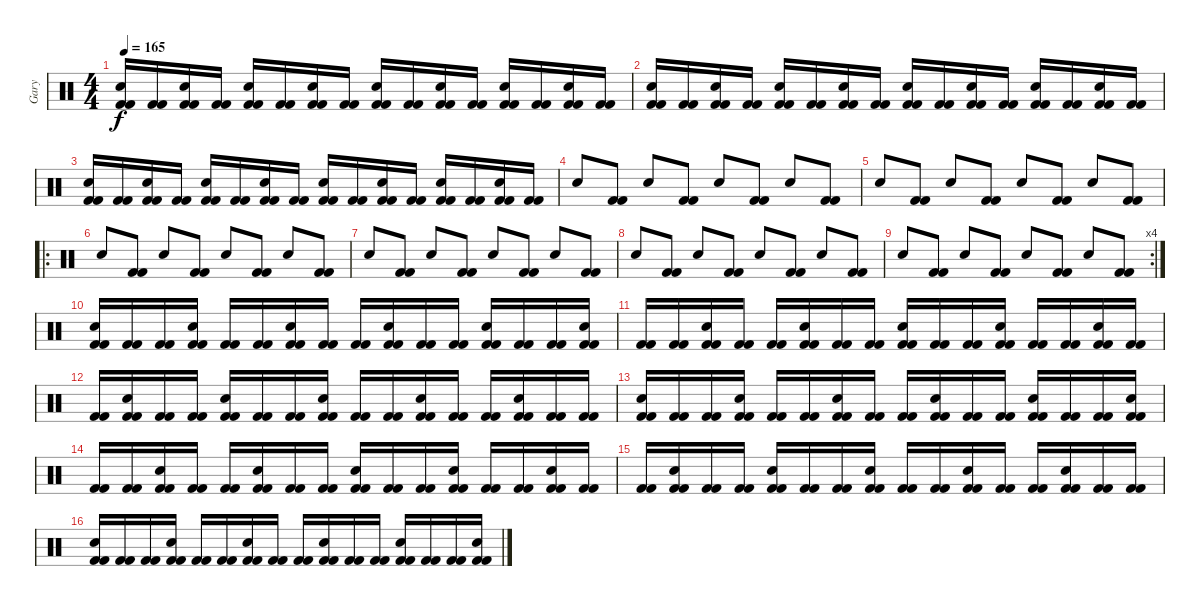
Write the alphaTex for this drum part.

\track ("Gary" "Gary") {instrument percussion}
\staff {score}
\articulation defaults
\ts (4 4)
\tempo 165
\clef neutral
\ks c
("Kick (hit) 2" "Snare (hit) 2" "Kick (hit) 2").16{dy f} ("Kick (hit) 2" "Kick (hit) 2").16 ("Kick (hit) 2" "Snare (hit) 2" "Kick (hit) 2").16 ("Kick (hit) 2" "Kick (hit) 2").16 ("Kick (hit) 2" "Snare (hit) 2" "Kick (hit) 2").16 ("Kick (hit) 2" "Kick (hit) 2").16 ("Kick (hit) 2" "Snare (hit) 2" "Kick (hit) 2").16 ("Kick (hit) 2" "Kick (hit) 2").16 ("Kick (hit) 2" "Snare (hit) 2" "Kick (hit) 2").16 ("Kick (hit) 2" "Kick (hit) 2").16 ("Kick (hit) 2" "Snare (hit) 2" "Kick (hit) 2").16 ("Kick (hit) 2" "Kick (hit) 2").16 ("Kick (hit) 2" "Snare (hit) 2" "Kick (hit) 2").16 ("Kick (hit) 2" "Kick (hit) 2").16 ("Kick (hit) 2" "Snare (hit) 2" "Kick (hit) 2").16 ("Kick (hit) 2" "Kick (hit) 2").16 |
("Kick (hit) 2" "Snare (hit) 2" "Kick (hit) 2").16 ("Kick (hit) 2" "Kick (hit) 2").16 ("Kick (hit) 2" "Snare (hit) 2" "Kick (hit) 2").16 ("Kick (hit) 2" "Kick (hit) 2").16 ("Kick (hit) 2" "Snare (hit) 2" "Kick (hit) 2").16 ("Kick (hit) 2" "Kick (hit) 2").16 ("Kick (hit) 2" "Snare (hit) 2" "Kick (hit) 2").16 ("Kick (hit) 2" "Kick (hit) 2").16 ("Kick (hit) 2" "Snare (hit) 2" "Kick (hit) 2").16 ("Kick (hit) 2" "Kick (hit) 2").16 ("Kick (hit) 2" "Snare (hit) 2" "Kick (hit) 2").16 ("Kick (hit) 2" "Kick (hit) 2").16 ("Kick (hit) 2" "Snare (hit) 2" "Kick (hit) 2").16 ("Kick (hit) 2" "Kick (hit) 2").16 ("Kick (hit) 2" "Snare (hit) 2" "Kick (hit) 2").16 ("Kick (hit) 2" "Kick (hit) 2").16 |
("Kick (hit) 2" "Snare (hit) 2" "Kick (hit) 2").16 ("Kick (hit) 2" "Kick (hit) 2").16 ("Kick (hit) 2" "Snare (hit) 2" "Kick (hit) 2").16 ("Kick (hit) 2" "Kick (hit) 2").16 ("Kick (hit) 2" "Snare (hit) 2" "Kick (hit) 2").16 ("Kick (hit) 2" "Kick (hit) 2").16 ("Kick (hit) 2" "Snare (hit) 2" "Kick (hit) 2").16 ("Kick (hit) 2" "Kick (hit) 2").16 ("Kick (hit) 2" "Snare (hit) 2" "Kick (hit) 2").16 ("Kick (hit) 2" "Kick (hit) 2").16 ("Kick (hit) 2" "Snare (hit) 2" "Kick (hit) 2").16 ("Kick (hit) 2" "Kick (hit) 2").16 ("Kick (hit) 2" "Snare (hit) 2" "Kick (hit) 2").16 ("Kick (hit) 2" "Kick (hit) 2").16 ("Kick (hit) 2" "Snare (hit) 2" "Kick (hit) 2").16 ("Kick (hit) 2" "Kick (hit) 2").16 |
"Snare (hit) 2".8 ("Kick (hit) 2" "Kick (hit) 2").8 "Snare (hit) 2".8 ("Kick (hit) 2" "Kick (hit) 2").8 "Snare (hit) 2".8 ("Kick (hit) 2" "Kick (hit) 2").8 "Snare (hit) 2".8 ("Kick (hit) 2" "Kick (hit) 2").8 |
"Snare (hit) 2".8 ("Kick (hit) 2" "Kick (hit) 2").8 "Snare (hit) 2".8 ("Kick (hit) 2" "Kick (hit) 2").8 "Snare (hit) 2".8 ("Kick (hit) 2" "Kick (hit) 2").8 "Snare (hit) 2".8 ("Kick (hit) 2" "Kick (hit) 2").8 |
\ro "Snare (hit) 2".8
("Kick (hit) 2" "Kick (hit) 2").8 "Snare (hit) 2".8 ("Kick (hit) 2" "Kick (hit) 2").8 "Snare (hit) 2".8 ("Kick (hit) 2" "Kick (hit) 2").8 "Snare (hit) 2".8 ("Kick (hit) 2" "Kick (hit) 2").8 |
"Snare (hit) 2".8 ("Kick (hit) 2" "Kick (hit) 2").8 "Snare (hit) 2".8 ("Kick (hit) 2" "Kick (hit) 2").8 "Snare (hit) 2".8 ("Kick (hit) 2" "Kick (hit) 2").8 "Snare (hit) 2".8 ("Kick (hit) 2" "Kick (hit) 2").8 |
"Snare (hit) 2".8 ("Kick (hit) 2" "Kick (hit) 2").8 "Snare (hit) 2".8 ("Kick (hit) 2" "Kick (hit) 2").8 "Snare (hit) 2".8 ("Kick (hit) 2" "Kick (hit) 2").8 "Snare (hit) 2".8 ("Kick (hit) 2" "Kick (hit) 2").8 |
\rc 4 "Snare (hit) 2".8
("Kick (hit) 2" "Kick (hit) 2").8 "Snare (hit) 2".8 ("Kick (hit) 2" "Kick (hit) 2").8 "Snare (hit) 2".8 ("Kick (hit) 2" "Kick (hit) 2").8 "Snare (hit) 2".8 ("Kick (hit) 2" "Kick (hit) 2").8 |
("Kick (hit) 2" "Snare (hit) 2" "Kick (hit) 2").16 ("Kick (hit) 2" "Kick (hit) 2").16 ("Kick (hit) 2" "Kick (hit) 2").16 ("Kick (hit) 2" "Snare (hit) 2" "Kick (hit) 2").16 ("Kick (hit) 2" "Kick (hit) 2").16 ("Kick (hit) 2" "Kick (hit) 2").16 ("Kick (hit) 2" "Snare (hit) 2" "Kick (hit) 2").16 ("Kick (hit) 2" "Kick (hit) 2").16 ("Kick (hit) 2" "Kick (hit) 2").16 ("Kick (hit) 2" "Snare (hit) 2" "Kick (hit) 2").16 ("Kick (hit) 2" "Kick (hit) 2").16 ("Kick (hit) 2" "Kick (hit) 2").16 ("Kick (hit) 2" "Snare (hit) 2" "Kick (hit) 2").16 ("Kick (hit) 2" "Kick (hit) 2").16 ("Kick (hit) 2" "Kick (hit) 2").16 ("Kick (hit) 2" "Snare (hit) 2" "Kick (hit) 2").16 |
("Kick (hit) 2" "Kick (hit) 2").16 ("Kick (hit) 2" "Kick (hit) 2").16 ("Kick (hit) 2" "Snare (hit) 2" "Kick (hit) 2").16 ("Kick (hit) 2" "Kick (hit) 2").16 ("Kick (hit) 2" "Kick (hit) 2").16 ("Kick (hit) 2" "Snare (hit) 2" "Kick (hit) 2").16 ("Kick (hit) 2" "Kick (hit) 2").16 ("Kick (hit) 2" "Kick (hit) 2").16 ("Kick (hit) 2" "Snare (hit) 2" "Kick (hit) 2").16 ("Kick (hit) 2" "Kick (hit) 2").16 ("Kick (hit) 2" "Kick (hit) 2").16 ("Kick (hit) 2" "Snare (hit) 2" "Kick (hit) 2").16 ("Kick (hit) 2" "Kick (hit) 2").16 ("Kick (hit) 2" "Kick (hit) 2").16 ("Kick (hit) 2" "Snare (hit) 2" "Kick (hit) 2").16 ("Kick (hit) 2" "Kick (hit) 2").16 |
("Kick (hit) 2" "Kick (hit) 2").16 ("Kick (hit) 2" "Snare (hit) 2" "Kick (hit) 2").16 ("Kick (hit) 2" "Kick (hit) 2").16 ("Kick (hit) 2" "Kick (hit) 2").16 ("Kick (hit) 2" "Snare (hit) 2" "Kick (hit) 2").16 ("Kick (hit) 2" "Kick (hit) 2").16 ("Kick (hit) 2" "Kick (hit) 2").16 ("Kick (hit) 2" "Snare (hit) 2" "Kick (hit) 2").16 ("Kick (hit) 2" "Kick (hit) 2").16 ("Kick (hit) 2" "Kick (hit) 2").16 ("Kick (hit) 2" "Snare (hit) 2" "Kick (hit) 2").16 ("Kick (hit) 2" "Kick (hit) 2").16 ("Kick (hit) 2" "Kick (hit) 2").16 ("Kick (hit) 2" "Snare (hit) 2" "Kick (hit) 2").16 ("Kick (hit) 2" "Kick (hit) 2").16 ("Kick (hit) 2" "Kick (hit) 2").16 |
("Kick (hit) 2" "Snare (hit) 2" "Kick (hit) 2").16 ("Kick (hit) 2" "Kick (hit) 2").16 ("Kick (hit) 2" "Kick (hit) 2").16 ("Kick (hit) 2" "Snare (hit) 2" "Kick (hit) 2").16 ("Kick (hit) 2" "Kick (hit) 2").16 ("Kick (hit) 2" "Kick (hit) 2").16 ("Kick (hit) 2" "Snare (hit) 2" "Kick (hit) 2").16 ("Kick (hit) 2" "Kick (hit) 2").16 ("Kick (hit) 2" "Kick (hit) 2").16 ("Kick (hit) 2" "Snare (hit) 2" "Kick (hit) 2").16 ("Kick (hit) 2" "Kick (hit) 2").16 ("Kick (hit) 2" "Kick (hit) 2").16 ("Kick (hit) 2" "Snare (hit) 2" "Kick (hit) 2").16 ("Kick (hit) 2" "Kick (hit) 2").16 ("Kick (hit) 2" "Kick (hit) 2").16 ("Kick (hit) 2" "Snare (hit) 2" "Kick (hit) 2").16 |
("Kick (hit) 2" "Kick (hit) 2").16 ("Kick (hit) 2" "Kick (hit) 2").16 ("Kick (hit) 2" "Snare (hit) 2" "Kick (hit) 2").16 ("Kick (hit) 2" "Kick (hit) 2").16 ("Kick (hit) 2" "Kick (hit) 2").16 ("Kick (hit) 2" "Snare (hit) 2" "Kick (hit) 2").16 ("Kick (hit) 2" "Kick (hit) 2").16 ("Kick (hit) 2" "Kick (hit) 2").16 ("Kick (hit) 2" "Snare (hit) 2" "Kick (hit) 2").16 ("Kick (hit) 2" "Kick (hit) 2").16 ("Kick (hit) 2" "Kick (hit) 2").16 ("Kick (hit) 2" "Snare (hit) 2" "Kick (hit) 2").16 ("Kick (hit) 2" "Kick (hit) 2").16 ("Kick (hit) 2" "Kick (hit) 2").16 ("Kick (hit) 2" "Snare (hit) 2" "Kick (hit) 2").16 ("Kick (hit) 2" "Kick (hit) 2").16 |
("Kick (hit) 2" "Kick (hit) 2").16 ("Kick (hit) 2" "Snare (hit) 2" "Kick (hit) 2").16 ("Kick (hit) 2" "Kick (hit) 2").16 ("Kick (hit) 2" "Kick (hit) 2").16 ("Kick (hit) 2" "Snare (hit) 2" "Kick (hit) 2").16 ("Kick (hit) 2" "Kick (hit) 2").16 ("Kick (hit) 2" "Kick (hit) 2").16 ("Kick (hit) 2" "Snare (hit) 2" "Kick (hit) 2").16 ("Kick (hit) 2" "Kick (hit) 2").16 ("Kick (hit) 2" "Kick (hit) 2").16 ("Kick (hit) 2" "Snare (hit) 2" "Kick (hit) 2").16 ("Kick (hit) 2" "Kick (hit) 2").16 ("Kick (hit) 2" "Kick (hit) 2").16 ("Kick (hit) 2" "Snare (hit) 2" "Kick (hit) 2").16 ("Kick (hit) 2" "Kick (hit) 2").16 ("Kick (hit) 2" "Kick (hit) 2").16 |
("Kick (hit) 2" "Snare (hit) 2" "Kick (hit) 2").16 ("Kick (hit) 2" "Kick (hit) 2").16 ("Kick (hit) 2" "Kick (hit) 2").16 ("Kick (hit) 2" "Snare (hit) 2" "Kick (hit) 2").16 ("Kick (hit) 2" "Kick (hit) 2").16 ("Kick (hit) 2" "Kick (hit) 2").16 ("Kick (hit) 2" "Snare (hit) 2" "Kick (hit) 2").16 ("Kick (hit) 2" "Kick (hit) 2").16 ("Kick (hit) 2" "Kick (hit) 2").16 ("Kick (hit) 2" "Snare (hit) 2" "Kick (hit) 2").16 ("Kick (hit) 2" "Kick (hit) 2").16 ("Kick (hit) 2" "Kick (hit) 2").16 ("Kick (hit) 2" "Snare (hit) 2" "Kick (hit) 2").16 ("Kick (hit) 2" "Kick (hit) 2").16 ("Kick (hit) 2" "Kick (hit) 2").16 ("Kick (hit) 2" "Snare (hit) 2" "Kick (hit) 2").16
